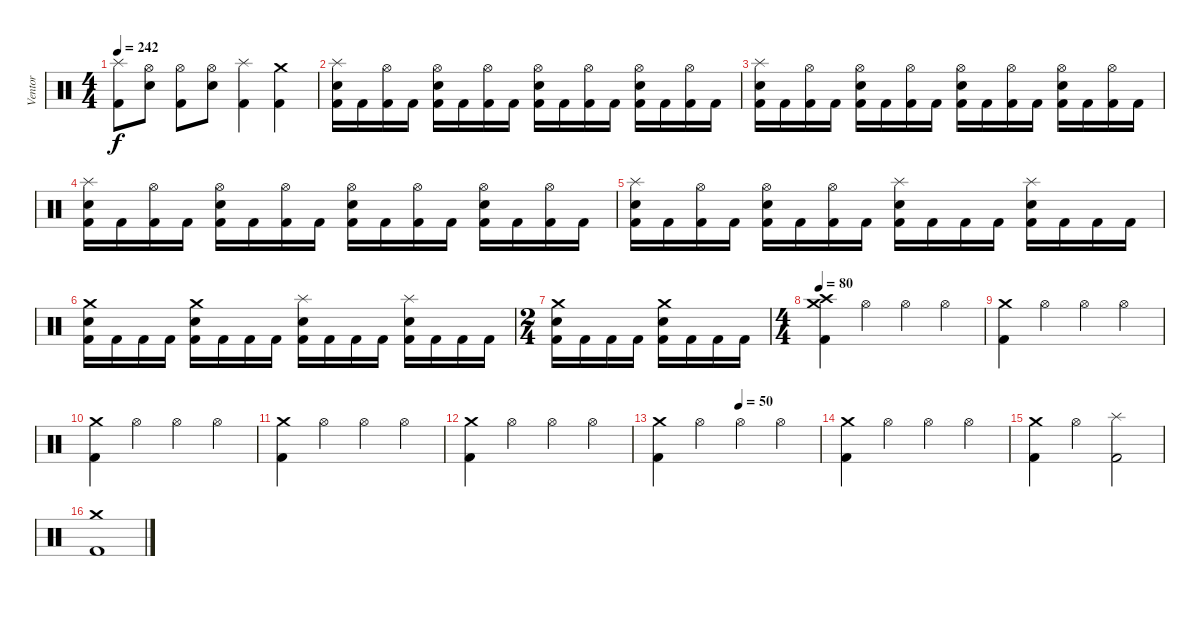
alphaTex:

\track ("Ventor" "Ventor") {instrument percussion}
\staff {score}
\articulation defaults
\ts (4 4)
\tempo 242
\clef neutral
\ks c
("Splash (hit)" "Kick (hit) 2").8{dy f} ("Hi-Hat (open)" "Snare (hit) 2").8 ("Hi-Hat (open)" "Kick (hit) 2").8 ("Hi-Hat (open)" "Snare (hit) 2").8 ("Splash (hit)" "Kick (hit) 2").4 ("Crash medium (hit)" "Kick (hit) 2").4 |
("Splash (hit)" "Snare (hit) 2" "Kick (hit) 2").16 "Kick (hit) 2".16 ("Hi-Hat (open)" "Kick (hit) 2").16 "Kick (hit) 2".16 ("Hi-Hat (open)" "Snare (hit) 2" "Kick (hit) 2").16 "Kick (hit) 2".16 ("Hi-Hat (open)" "Kick (hit) 2").16 "Kick (hit) 2".16 ("Hi-Hat (open)" "Snare (hit) 2" "Kick (hit) 2").16 "Kick (hit) 2".16 ("Hi-Hat (open)" "Kick (hit) 2").16 "Kick (hit) 2".16 ("Hi-Hat (open)" "Snare (hit) 2" "Kick (hit) 2").16 "Kick (hit) 2".16 ("Hi-Hat (open)" "Kick (hit) 2").16 "Kick (hit) 2".16 |
("Splash (hit)" "Snare (hit) 2" "Kick (hit) 2").16 "Kick (hit) 2".16 ("Hi-Hat (open)" "Kick (hit) 2").16 "Kick (hit) 2".16 ("Hi-Hat (open)" "Snare (hit) 2" "Kick (hit) 2").16 "Kick (hit) 2".16 ("Hi-Hat (open)" "Kick (hit) 2").16 "Kick (hit) 2".16 ("Hi-Hat (open)" "Snare (hit) 2" "Kick (hit) 2").16 "Kick (hit) 2".16 ("Hi-Hat (open)" "Kick (hit) 2").16 "Kick (hit) 2".16 ("Hi-Hat (open)" "Snare (hit) 2" "Kick (hit) 2").16 "Kick (hit) 2".16 ("Hi-Hat (open)" "Kick (hit) 2").16 "Kick (hit) 2".16 |
("Splash (hit)" "Snare (hit) 2" "Kick (hit) 2").16 "Kick (hit) 2".16 ("Hi-Hat (open)" "Kick (hit) 2").16 "Kick (hit) 2".16 ("Hi-Hat (open)" "Snare (hit) 2" "Kick (hit) 2").16 "Kick (hit) 2".16 ("Hi-Hat (open)" "Kick (hit) 2").16 "Kick (hit) 2".16 ("Hi-Hat (open)" "Snare (hit) 2" "Kick (hit) 2").16 "Kick (hit) 2".16 ("Hi-Hat (open)" "Kick (hit) 2").16 "Kick (hit) 2".16 ("Hi-Hat (open)" "Snare (hit) 2" "Kick (hit) 2").16 "Kick (hit) 2".16 ("Hi-Hat (open)" "Kick (hit) 2").16 "Kick (hit) 2".16 |
("Splash (hit)" "Snare (hit) 2" "Kick (hit) 2").16 "Kick (hit) 2".16 ("Hi-Hat (open)" "Kick (hit) 2").16 "Kick (hit) 2".16 ("Hi-Hat (open)" "Snare (hit) 2" "Kick (hit) 2").16 "Kick (hit) 2".16 ("Hi-Hat (open)" "Kick (hit) 2").16 "Kick (hit) 2".16 ("Splash (hit)" "Snare (hit) 2" "Kick (hit) 2").16 "Kick (hit) 2".16 "Kick (hit) 2".16 "Kick (hit) 2".16 ("Splash (hit)" "Snare (hit) 2" "Kick (hit) 2").16 "Kick (hit) 2".16 "Kick (hit) 2".16 "Kick (hit) 2".16 |
("Crash medium (hit)" "Snare (hit) 2" "Kick (hit) 2").16 "Kick (hit) 2".16 "Kick (hit) 2".16 "Kick (hit) 2".16 ("Crash medium (hit)" "Snare (hit) 2" "Kick (hit) 2").16 "Kick (hit) 2".16 "Kick (hit) 2".16 "Kick (hit) 2".16 ("Splash (hit)" "Snare (hit) 2" "Kick (hit) 2").16 "Kick (hit) 2".16 "Kick (hit) 2".16 "Kick (hit) 2".16 ("Splash (hit)" "Snare (hit) 2" "Kick (hit) 2").16 "Kick (hit) 2".16 "Kick (hit) 2".16 "Kick (hit) 2".16 |
\ts (2 4)
("Crash medium (hit)" "Snare (hit) 2" "Kick (hit) 2").16 "Kick (hit) 2".16 "Kick (hit) 2".16 "Kick (hit) 2".16 ("Crash medium (hit)" "Snare (hit) 2" "Kick (hit) 2").16 "Kick (hit) 2".16 "Kick (hit) 2".16 "Kick (hit) 2".16 |
\ts (4 4)
\tempo 80
("Crash high (hit)" "Crash medium (hit)" "Kick (hit) 2").4 "Hi-Hat (open)".4 "Hi-Hat (open)".4 "Hi-Hat (open)".4 |
("Crash medium (hit)" "Kick (hit) 2").4 "Hi-Hat (open)".4 "Hi-Hat (open)".4 "Hi-Hat (open)".4 |
("Crash medium (hit)" "Kick (hit) 2").4 "Hi-Hat (open)".4 "Hi-Hat (open)".4 "Hi-Hat (open)".4 |
("Crash medium (hit)" "Kick (hit) 2").4 "Hi-Hat (open)".4 "Hi-Hat (open)".4 "Hi-Hat (open)".4 |
("Crash medium (hit)" "Kick (hit) 2").4 "Hi-Hat (open)".4 "Hi-Hat (open)".4 "Hi-Hat (open)".4 |
\tempo (50 0.5)
("Crash medium (hit)" "Kick (hit) 2").4 "Hi-Hat (open)".4 "Hi-Hat (open)".4 "Hi-Hat (open)".4 |
("Crash medium (hit)" "Kick (hit) 2").4 "Hi-Hat (open)".4 "Hi-Hat (open)".4 "Hi-Hat (open)".4 |
("Crash medium (hit)" "Kick (hit) 2").4 "Hi-Hat (open)".4 ("Splash (hit)" "Kick (hit) 2").2 |
("Crash medium (hit)" "Kick (hit) 2").1
